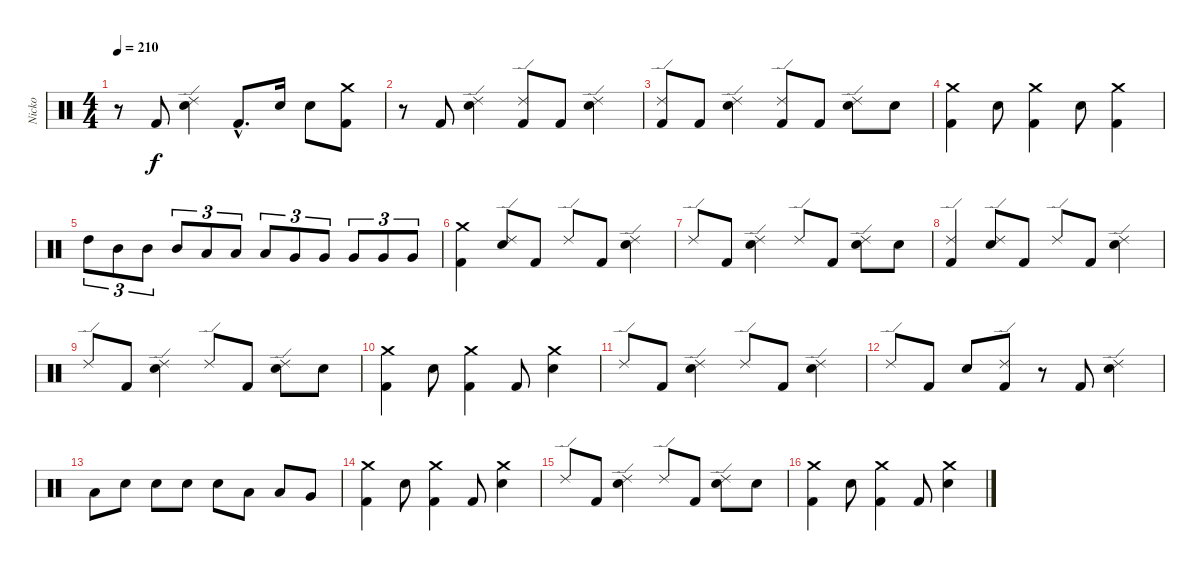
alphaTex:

\track ("Nicko" "Nicko") {instrument percussion}
\staff {score}
\articulation defaults
\ts (4 4)
\tempo 210
\clef neutral
\ks c
r.8{dy f} "Kick (hit) 2".8 ("Ride (edge) 2" "Electric Snare (hit)").4 "Kick (hit) 2"{hac}.8{d} "Electric Snare (hit)".16 "Electric Snare (hit)".8 ("Crash medium (hit)" "Kick (hit) 2").8 |
r.8 "Kick (hit) 2".8 ("Ride (edge) 2" "Electric Snare (hit)").4 ("Ride (edge) 2" "Kick (hit) 2").8 "Kick (hit) 2".8 ("Ride (edge) 2" "Electric Snare (hit)").4 |
("Ride (edge) 2" "Kick (hit) 2").8 "Kick (hit) 2".8 ("Ride (edge) 2" "Electric Snare (hit)").4 ("Ride (edge) 2" "Kick (hit) 2").8 "Kick (hit) 2".8 ("Ride (edge) 2" "Electric Snare (hit)").8 "Electric Snare (hit)".8 |
("Crash medium (hit)" "Kick (hit) 2").4 "Electric Snare (hit)".8 ("Crash medium (hit)" "Kick (hit) 2").4 "Electric Snare (hit)".8 ("Crash medium (hit)" "Kick (hit) 2").4 |
"High Tom (hit)".8{tu (3 2)} "Mid Tom (hit)".8{tu (3 2)} "Mid Tom (hit)".8{tu (3 2)} "Mid Tom (hit)".8{tu (3 2)} "Low Tom (hit)".8{tu (3 2)} "Low Tom (hit)".8{tu (3 2)} "Low Tom (hit)".8{tu (3 2)} "Very Low Tom (hit)".8{tu (3 2)} "Very Low Tom (hit)".8{tu (3 2)} "Very Low Tom (hit)".8{tu (3 2)} "Very Low Tom (hit)".8{tu (3 2)} "Very Low Tom (hit)".8{tu (3 2)} |
("Crash medium (hit)" "Kick (hit) 2").4 ("Ride (edge) 2" "Electric Snare (hit)").8 "Kick (hit) 2".8 "Ride (edge) 2".8 "Kick (hit) 2".8 ("Ride (edge) 2" "Electric Snare (hit)").4 |
"Ride (edge) 2".8 "Kick (hit) 2".8 ("Ride (edge) 2" "Electric Snare (hit)").4 "Ride (edge) 2".8 "Kick (hit) 2".8 ("Ride (edge) 2" "Electric Snare (hit)").8 "Electric Snare (hit)".8 |
("Ride (edge) 2" "Kick (hit) 2").4 ("Ride (edge) 2" "Electric Snare (hit)").8 "Kick (hit) 2".8 "Ride (edge) 2".8 "Kick (hit) 2".8 ("Ride (edge) 2" "Electric Snare (hit)").4 |
"Ride (edge) 2".8 "Kick (hit) 2".8 ("Ride (edge) 2" "Electric Snare (hit)").4 "Ride (edge) 2".8 "Kick (hit) 2".8 ("Ride (edge) 2" "Electric Snare (hit)").8 "Electric Snare (hit)".8 |
("Crash medium (hit)" "Kick (hit) 2").4 "Electric Snare (hit)".8 ("Crash medium (hit)" "Kick (hit) 2").4 "Kick (hit) 2".8 ("Crash medium (hit)" "Electric Snare (hit)").4 |
"Ride (edge) 2".8 "Kick (hit) 2".8 ("Ride (edge) 2" "Electric Snare (hit)").4 "Ride (edge) 2".8 "Kick (hit) 2".8 ("Ride (edge) 2" "Electric Snare (hit)").4 |
"Ride (edge) 2".8 "Kick (hit) 2".8 "Electric Snare (hit)".8 ("Ride (edge) 2" "Kick (hit) 2").8 r.8 "Kick (hit) 2".8 ("Ride (edge) 2" "Electric Snare (hit)").4 |
"Low Tom (hit)".8 "Electric Snare (hit)".8 "Electric Snare (hit)".8 "Electric Snare (hit)".8 "Electric Snare (hit)".8 "Low Tom (hit)".8 "Low Tom (hit)".8 "Very Low Tom (hit)".8 |
("Crash medium (hit)" "Kick (hit) 2").4 "Electric Snare (hit)".8 ("Crash medium (hit)" "Kick (hit) 2").4 "Kick (hit) 2".8 ("Crash medium (hit)" "Electric Snare (hit)").4 |
"Ride (edge) 2".8 "Kick (hit) 2".8 ("Ride (edge) 2" "Electric Snare (hit)").4 "Ride (edge) 2".8 "Kick (hit) 2".8 ("Ride (edge) 2" "Electric Snare (hit)").8 "Electric Snare (hit)".8 |
("Crash medium (hit)" "Kick (hit) 2").4 "Electric Snare (hit)".8 ("Crash medium (hit)" "Kick (hit) 2").4 "Kick (hit) 2".8 ("Crash medium (hit)" "Electric Snare (hit)").4
